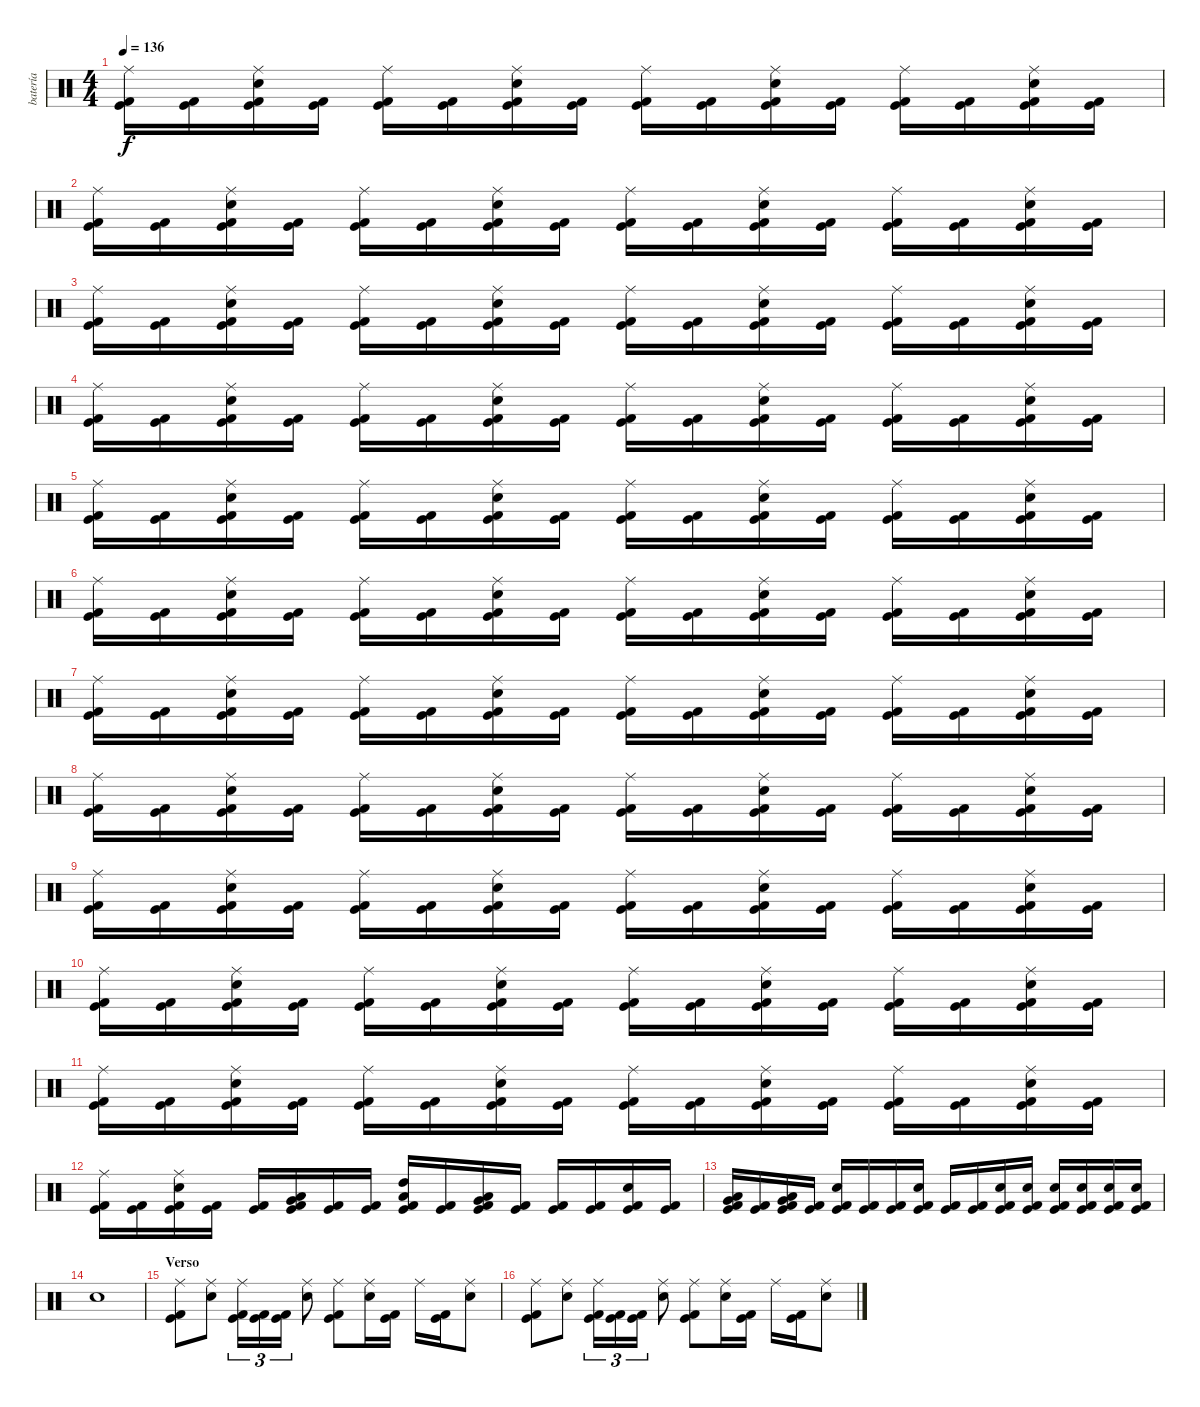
\track ("batería" "batería") {instrument percussion}
\staff {score}
\articulation defaults
\ts (4 4)
\tempo 136
\clef neutral
\ks c
("Kick (hit)" "Kick (hit) 2" "Ride (middle)").16{dy f} ("Kick (hit)" "Kick (hit) 2").16 ("Kick (hit)" "Kick (hit) 2" "Snare (hit) 2" "Ride (middle)").16 ("Kick (hit)" "Kick (hit) 2").16 ("Kick (hit)" "Kick (hit) 2" "Ride (middle)").16 ("Kick (hit)" "Kick (hit) 2").16 ("Kick (hit)" "Kick (hit) 2" "Snare (hit) 2" "Ride (middle)").16 ("Kick (hit)" "Kick (hit) 2").16 ("Kick (hit)" "Kick (hit) 2" "Ride (middle)").16 ("Kick (hit)" "Kick (hit) 2").16 ("Kick (hit)" "Kick (hit) 2" "Snare (hit) 2" "Ride (middle)").16 ("Kick (hit)" "Kick (hit) 2").16 ("Kick (hit)" "Kick (hit) 2" "Ride (middle)").16 ("Kick (hit)" "Kick (hit) 2").16 ("Kick (hit)" "Kick (hit) 2" "Snare (hit) 2" "Ride (middle)").16 ("Kick (hit)" "Kick (hit) 2").16 |
("Kick (hit)" "Kick (hit) 2" "Ride (middle)").16 ("Kick (hit)" "Kick (hit) 2").16 ("Kick (hit)" "Kick (hit) 2" "Snare (hit) 2" "Ride (middle)").16 ("Kick (hit)" "Kick (hit) 2").16 ("Kick (hit)" "Kick (hit) 2" "Ride (middle)").16 ("Kick (hit)" "Kick (hit) 2").16 ("Kick (hit)" "Kick (hit) 2" "Snare (hit) 2" "Ride (middle)").16 ("Kick (hit)" "Kick (hit) 2").16 ("Kick (hit)" "Kick (hit) 2" "Ride (middle)").16 ("Kick (hit)" "Kick (hit) 2").16 ("Kick (hit)" "Kick (hit) 2" "Snare (hit) 2" "Ride (middle)").16 ("Kick (hit)" "Kick (hit) 2").16 ("Kick (hit)" "Kick (hit) 2" "Ride (middle)").16 ("Kick (hit)" "Kick (hit) 2").16 ("Kick (hit)" "Kick (hit) 2" "Snare (hit) 2" "Ride (middle)").16 ("Kick (hit)" "Kick (hit) 2").16 |
\section ("" "")
("Kick (hit)" "Kick (hit) 2" "Ride (middle)").16 ("Kick (hit)" "Kick (hit) 2").16 ("Kick (hit)" "Kick (hit) 2" "Snare (hit) 2" "Ride (middle)").16 ("Kick (hit)" "Kick (hit) 2").16 ("Kick (hit)" "Kick (hit) 2" "Ride (middle)").16 ("Kick (hit)" "Kick (hit) 2").16 ("Kick (hit)" "Kick (hit) 2" "Snare (hit) 2" "Ride (middle)").16 ("Kick (hit)" "Kick (hit) 2").16 ("Kick (hit)" "Kick (hit) 2" "Ride (middle)").16 ("Kick (hit)" "Kick (hit) 2").16 ("Kick (hit)" "Kick (hit) 2" "Snare (hit) 2" "Ride (middle)").16 ("Kick (hit)" "Kick (hit) 2").16 ("Kick (hit)" "Kick (hit) 2" "Ride (middle)").16 ("Kick (hit)" "Kick (hit) 2").16 ("Kick (hit)" "Kick (hit) 2" "Snare (hit) 2" "Ride (middle)").16 ("Kick (hit)" "Kick (hit) 2").16 |
("Kick (hit)" "Kick (hit) 2" "Ride (middle)").16 ("Kick (hit)" "Kick (hit) 2").16 ("Kick (hit)" "Kick (hit) 2" "Snare (hit) 2" "Ride (middle)").16 ("Kick (hit)" "Kick (hit) 2").16 ("Kick (hit)" "Kick (hit) 2" "Ride (middle)").16 ("Kick (hit)" "Kick (hit) 2").16 ("Kick (hit)" "Kick (hit) 2" "Snare (hit) 2" "Ride (middle)").16 ("Kick (hit)" "Kick (hit) 2").16 ("Kick (hit)" "Kick (hit) 2" "Ride (middle)").16 ("Kick (hit)" "Kick (hit) 2").16 ("Kick (hit)" "Kick (hit) 2" "Snare (hit) 2" "Ride (middle)").16 ("Kick (hit)" "Kick (hit) 2").16 ("Kick (hit)" "Kick (hit) 2" "Ride (middle)").16 ("Kick (hit)" "Kick (hit) 2").16 ("Kick (hit)" "Kick (hit) 2" "Snare (hit) 2" "Ride (middle)").16 ("Kick (hit)" "Kick (hit) 2").16 |
("Kick (hit)" "Kick (hit) 2" "Ride (middle)").16 ("Kick (hit)" "Kick (hit) 2").16 ("Kick (hit)" "Kick (hit) 2" "Snare (hit) 2" "Ride (middle)").16 ("Kick (hit)" "Kick (hit) 2").16 ("Kick (hit)" "Kick (hit) 2" "Ride (middle)").16 ("Kick (hit)" "Kick (hit) 2").16 ("Kick (hit)" "Kick (hit) 2" "Snare (hit) 2" "Ride (middle)").16 ("Kick (hit)" "Kick (hit) 2").16 ("Kick (hit)" "Kick (hit) 2" "Ride (middle)").16 ("Kick (hit)" "Kick (hit) 2").16 ("Kick (hit)" "Kick (hit) 2" "Snare (hit) 2" "Ride (middle)").16 ("Kick (hit)" "Kick (hit) 2").16 ("Kick (hit)" "Kick (hit) 2" "Ride (middle)").16 ("Kick (hit)" "Kick (hit) 2").16 ("Kick (hit)" "Kick (hit) 2" "Snare (hit) 2" "Ride (middle)").16 ("Kick (hit)" "Kick (hit) 2").16 |
("Kick (hit)" "Kick (hit) 2" "Ride (middle)").16 ("Kick (hit)" "Kick (hit) 2").16 ("Kick (hit)" "Kick (hit) 2" "Snare (hit) 2" "Ride (middle)").16 ("Kick (hit)" "Kick (hit) 2").16 ("Kick (hit)" "Kick (hit) 2" "Ride (middle)").16 ("Kick (hit)" "Kick (hit) 2").16 ("Kick (hit)" "Kick (hit) 2" "Snare (hit) 2" "Ride (middle)").16 ("Kick (hit)" "Kick (hit) 2").16 ("Kick (hit)" "Kick (hit) 2" "Ride (middle)").16 ("Kick (hit)" "Kick (hit) 2").16 ("Kick (hit)" "Kick (hit) 2" "Snare (hit) 2" "Ride (middle)").16 ("Kick (hit)" "Kick (hit) 2").16 ("Kick (hit)" "Kick (hit) 2" "Ride (middle)").16 ("Kick (hit)" "Kick (hit) 2").16 ("Kick (hit)" "Kick (hit) 2" "Snare (hit) 2" "Ride (middle)").16 ("Kick (hit)" "Kick (hit) 2").16 |
\section ("" "")
("Kick (hit)" "Kick (hit) 2" "Ride (middle)").16 ("Kick (hit)" "Kick (hit) 2").16 ("Kick (hit)" "Kick (hit) 2" "Snare (hit) 2" "Ride (middle)").16 ("Kick (hit)" "Kick (hit) 2").16 ("Kick (hit)" "Kick (hit) 2" "Ride (middle)").16 ("Kick (hit)" "Kick (hit) 2").16 ("Kick (hit)" "Kick (hit) 2" "Snare (hit) 2" "Ride (middle)").16 ("Kick (hit)" "Kick (hit) 2").16 ("Kick (hit)" "Kick (hit) 2" "Ride (middle)").16 ("Kick (hit)" "Kick (hit) 2").16 ("Kick (hit)" "Kick (hit) 2" "Snare (hit) 2" "Ride (middle)").16 ("Kick (hit)" "Kick (hit) 2").16 ("Kick (hit)" "Kick (hit) 2" "Ride (middle)").16 ("Kick (hit)" "Kick (hit) 2").16 ("Kick (hit)" "Kick (hit) 2" "Snare (hit) 2" "Ride (middle)").16 ("Kick (hit)" "Kick (hit) 2").16 |
("Kick (hit)" "Kick (hit) 2" "Ride (middle)").16 ("Kick (hit)" "Kick (hit) 2").16 ("Kick (hit)" "Kick (hit) 2" "Snare (hit) 2" "Ride (middle)").16 ("Kick (hit)" "Kick (hit) 2").16 ("Kick (hit)" "Kick (hit) 2" "Ride (middle)").16 ("Kick (hit)" "Kick (hit) 2").16 ("Kick (hit)" "Kick (hit) 2" "Snare (hit) 2" "Ride (middle)").16 ("Kick (hit)" "Kick (hit) 2").16 ("Kick (hit)" "Kick (hit) 2" "Ride (middle)").16 ("Kick (hit)" "Kick (hit) 2").16 ("Kick (hit)" "Kick (hit) 2" "Snare (hit) 2" "Ride (middle)").16 ("Kick (hit)" "Kick (hit) 2").16 ("Kick (hit)" "Kick (hit) 2" "Ride (middle)").16 ("Kick (hit)" "Kick (hit) 2").16 ("Kick (hit)" "Kick (hit) 2" "Snare (hit) 2" "Ride (middle)").16 ("Kick (hit)" "Kick (hit) 2").16 |
("Kick (hit)" "Kick (hit) 2" "Ride (middle)").16 ("Kick (hit)" "Kick (hit) 2").16 ("Kick (hit)" "Kick (hit) 2" "Snare (hit) 2" "Ride (middle)").16 ("Kick (hit)" "Kick (hit) 2").16 ("Kick (hit)" "Kick (hit) 2" "Ride (middle)").16 ("Kick (hit)" "Kick (hit) 2").16 ("Kick (hit)" "Kick (hit) 2" "Snare (hit) 2" "Ride (middle)").16 ("Kick (hit)" "Kick (hit) 2").16 ("Kick (hit)" "Kick (hit) 2" "Ride (middle)").16 ("Kick (hit)" "Kick (hit) 2").16 ("Kick (hit)" "Kick (hit) 2" "Snare (hit) 2" "Ride (middle)").16 ("Kick (hit)" "Kick (hit) 2").16 ("Kick (hit)" "Kick (hit) 2" "Ride (middle)").16 ("Kick (hit)" "Kick (hit) 2").16 ("Kick (hit)" "Kick (hit) 2" "Snare (hit) 2" "Ride (middle)").16 ("Kick (hit)" "Kick (hit) 2").16 |
("Kick (hit)" "Kick (hit) 2" "Ride (middle)").16 ("Kick (hit)" "Kick (hit) 2").16 ("Kick (hit)" "Kick (hit) 2" "Snare (hit) 2" "Ride (middle)").16 ("Kick (hit)" "Kick (hit) 2").16 ("Kick (hit)" "Kick (hit) 2" "Ride (middle)").16 ("Kick (hit)" "Kick (hit) 2").16 ("Kick (hit)" "Kick (hit) 2" "Snare (hit) 2" "Ride (middle)").16 ("Kick (hit)" "Kick (hit) 2").16 ("Kick (hit)" "Kick (hit) 2" "Ride (middle)").16 ("Kick (hit)" "Kick (hit) 2").16 ("Kick (hit)" "Kick (hit) 2" "Snare (hit) 2" "Ride (middle)").16 ("Kick (hit)" "Kick (hit) 2").16 ("Kick (hit)" "Kick (hit) 2" "Ride (middle)").16 ("Kick (hit)" "Kick (hit) 2").16 ("Kick (hit)" "Kick (hit) 2" "Snare (hit) 2" "Ride (middle)").16 ("Kick (hit)" "Kick (hit) 2").16 |
\section ("" "")
("Kick (hit)" "Kick (hit) 2" "Ride (middle)").16 ("Kick (hit)" "Kick (hit) 2").16 ("Kick (hit)" "Kick (hit) 2" "Snare (hit) 2" "Ride (middle)").16 ("Kick (hit)" "Kick (hit) 2").16 ("Kick (hit)" "Kick (hit) 2" "Ride (middle)").16 ("Kick (hit)" "Kick (hit) 2").16 ("Kick (hit)" "Kick (hit) 2" "Snare (hit) 2" "Ride (middle)").16 ("Kick (hit)" "Kick (hit) 2").16 ("Kick (hit)" "Kick (hit) 2" "Ride (middle)").16 ("Kick (hit)" "Kick (hit) 2").16 ("Kick (hit)" "Kick (hit) 2" "Snare (hit) 2" "Ride (middle)").16 ("Kick (hit)" "Kick (hit) 2").16 ("Kick (hit)" "Kick (hit) 2" "Ride (middle)").16 ("Kick (hit)" "Kick (hit) 2").16 ("Kick (hit)" "Kick (hit) 2" "Snare (hit) 2" "Ride (middle)").16 ("Kick (hit)" "Kick (hit) 2").16 |
("Kick (hit)" "Kick (hit) 2" "Ride (middle)").16 ("Kick (hit)" "Kick (hit) 2").16 ("Kick (hit)" "Kick (hit) 2" "Snare (hit) 2" "Ride (middle)").16 ("Kick (hit)" "Kick (hit) 2").16 ("Kick (hit)" "Kick (hit) 2").16 ("Kick (hit)" "Kick (hit) 2" "Very Low Tom (hit)" "Low Tom (hit)").16 ("Kick (hit)" "Kick (hit) 2").16 ("Kick (hit)" "Kick (hit) 2").16 ("Kick (hit)" "Kick (hit) 2" "High Tom (hit)" "Low Tom (hit)").16 ("Kick (hit)" "Kick (hit) 2").16 ("Kick (hit)" "Kick (hit) 2" "Very Low Tom (hit)" "Low Tom (hit)").16 ("Kick (hit)" "Kick (hit) 2").16 ("Kick (hit)" "Kick (hit) 2").16 ("Kick (hit)" "Kick (hit) 2").16 ("Kick (hit)" "Kick (hit) 2" "Snare (hit) 2").16 ("Kick (hit)" "Kick (hit) 2").16 |
("Kick (hit)" "Kick (hit) 2" "Very Low Tom (hit)" "Low Tom (hit)").16 ("Kick (hit)" "Kick (hit) 2").16 ("Kick (hit)" "Kick (hit) 2" "Very Low Tom (hit)" "Low Tom (hit)").16 ("Kick (hit)" "Kick (hit) 2").16 ("Kick (hit)" "Kick (hit) 2" "Snare (hit) 2").16 ("Kick (hit)" "Kick (hit) 2").16 ("Kick (hit)" "Kick (hit) 2").16 ("Kick (hit)" "Kick (hit) 2" "Snare (hit) 2").16 ("Kick (hit)" "Kick (hit) 2").16 ("Kick (hit)" "Kick (hit) 2").16 ("Kick (hit)" "Kick (hit) 2" "Snare (hit) 2").16 ("Kick (hit)" "Kick (hit) 2" "Snare (hit) 2").16 ("Kick (hit)" "Kick (hit) 2" "Snare (hit) 2").16 ("Kick (hit)" "Kick (hit) 2" "Snare (hit) 2").16 ("Kick (hit)" "Kick (hit) 2" "Snare (hit) 2").16 ("Kick (hit)" "Kick (hit) 2" "Snare (hit) 2").16 |
"Snare (hit) 2".1 |
\section ("" "Verso")
("Kick (hit) 2" "Ride (middle)" "Kick (hit)").8 ("Snare (hit) 2" "Ride (middle)").8 ("Kick (hit) 2" "Ride (middle)" "Kick (hit)").16{tu (3 2)} ("Kick (hit) 2" "Kick (hit)").16{tu (3 2)} ("Kick (hit) 2" "Kick (hit)").16{tu (3 2)} ("Snare (hit) 2" "Ride (middle)").8 ("Kick (hit) 2" "Ride (middle)" "Kick (hit)").8 ("Snare (hit) 2" "Ride (middle)").16 ("Kick (hit) 2" "Kick (hit)").16 "Ride (middle)".16 ("Kick (hit) 2" "Kick (hit)").16 ("Snare (hit) 2" "Ride (middle)").8 |
("Kick (hit) 2" "Ride (middle)" "Kick (hit)").8 ("Snare (hit) 2" "Ride (middle)").8 ("Kick (hit) 2" "Ride (middle)" "Kick (hit)").16{tu (3 2)} ("Kick (hit) 2" "Kick (hit)").16{tu (3 2)} ("Kick (hit) 2" "Kick (hit)").16{tu (3 2)} ("Snare (hit) 2" "Ride (middle)").8 ("Kick (hit) 2" "Ride (middle)" "Kick (hit)").8 ("Snare (hit) 2" "Ride (middle)").16 ("Kick (hit) 2" "Kick (hit)").16 "Ride (middle)".16 ("Kick (hit) 2" "Kick (hit)").16 ("Snare (hit) 2" "Ride (middle)").8
